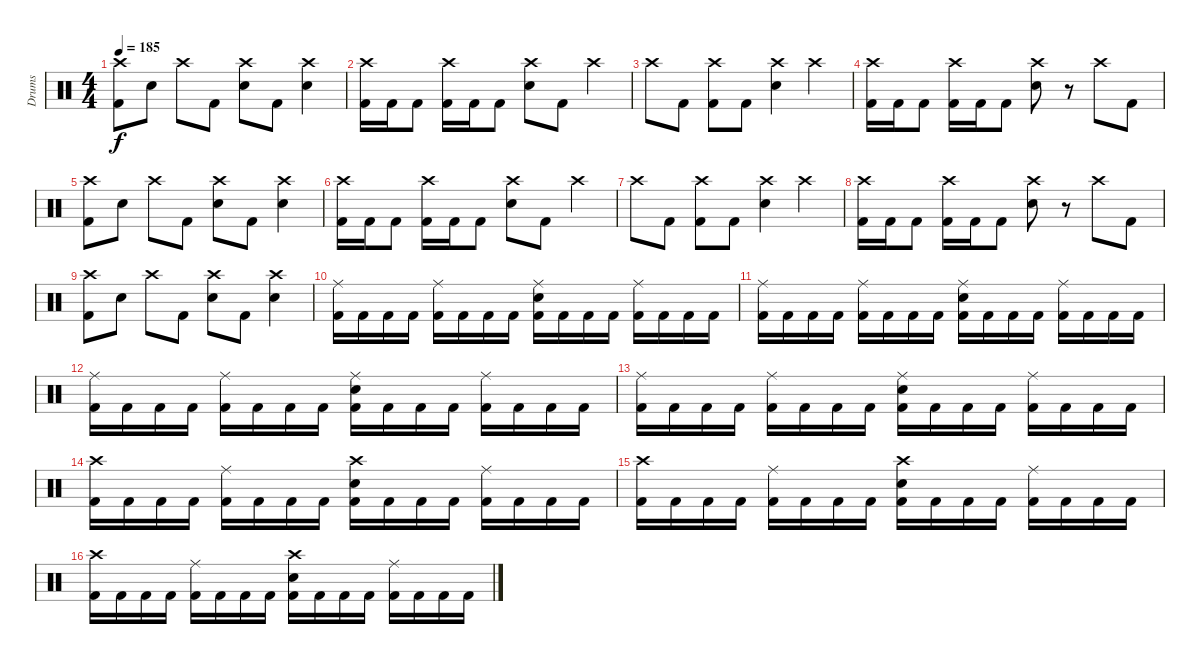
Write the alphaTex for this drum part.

\track ("Drums" "Drums") {instrument percussion}
\staff {score}
\articulation defaults
\ts (4 4)
\tempo 185
\clef neutral
\ks c
("Crash high (hit)" "Kick (hit) 2").8{dy f} "Snare (hit) 2".8 "Crash high (hit)".8 "Kick (hit) 2".8 ("Crash high (hit)" "Snare (hit) 2").8 "Kick (hit) 2".8 ("Crash high (hit)" "Snare (hit) 2").4 |
("Crash high (hit)" "Kick (hit) 2").16 "Kick (hit) 2".16 "Kick (hit) 2".8 ("Crash high (hit)" "Kick (hit) 2").16 "Kick (hit) 2".16 "Kick (hit) 2".8 ("Crash high (hit)" "Snare (hit) 2").8 "Kick (hit) 2".8 "Crash high (hit)".4 |
"Crash high (hit)".8 "Kick (hit) 2".8 ("Crash high (hit)" "Kick (hit) 2").8 "Kick (hit) 2".8 ("Crash high (hit)" "Snare (hit) 2").4 "Crash high (hit)".4 |
("Crash high (hit)" "Kick (hit) 2").16 "Kick (hit) 2".16 "Kick (hit) 2".8 ("Crash high (hit)" "Kick (hit) 2").16 "Kick (hit) 2".16 "Kick (hit) 2".8 ("Crash high (hit)" "Snare (hit) 2").8 r.8 "Crash high (hit)".8 "Kick (hit) 2".8 |
("Crash high (hit)" "Kick (hit) 2").8 "Snare (hit) 2".8 "Crash high (hit)".8 "Kick (hit) 2".8 ("Crash high (hit)" "Snare (hit) 2").8 "Kick (hit) 2".8 ("Crash high (hit)" "Snare (hit) 2").4 |
("Crash high (hit)" "Kick (hit) 2").16 "Kick (hit) 2".16 "Kick (hit) 2".8 ("Crash high (hit)" "Kick (hit) 2").16 "Kick (hit) 2".16 "Kick (hit) 2".8 ("Crash high (hit)" "Snare (hit) 2").8 "Kick (hit) 2".8 "Crash high (hit)".4 |
"Crash high (hit)".8 "Kick (hit) 2".8 ("Crash high (hit)" "Kick (hit) 2").8 "Kick (hit) 2".8 ("Crash high (hit)" "Snare (hit) 2").4 "Crash high (hit)".4 |
("Crash high (hit)" "Kick (hit) 2").16 "Kick (hit) 2".16 "Kick (hit) 2".8 ("Crash high (hit)" "Kick (hit) 2").16 "Kick (hit) 2".16 "Kick (hit) 2".8 ("Crash high (hit)" "Snare (hit) 2").8 r.8 "Crash high (hit)".8 "Kick (hit) 2".8 |
("Crash high (hit)" "Kick (hit) 2").8 "Snare (hit) 2".8 "Crash high (hit)".8 "Kick (hit) 2".8 ("Crash high (hit)" "Snare (hit) 2").8 "Kick (hit) 2".8 ("Crash high (hit)" "Snare (hit) 2").4 |
("Ride (middle)" "Kick (hit) 2").16 "Kick (hit) 2".16 "Kick (hit) 2".16 "Kick (hit) 2".16 ("Ride (middle)" "Kick (hit) 2").16 "Kick (hit) 2".16 "Kick (hit) 2".16 "Kick (hit) 2".16 ("Ride (middle)" "Snare (hit) 2" "Kick (hit) 2").16 "Kick (hit) 2".16 "Kick (hit) 2".16 "Kick (hit) 2".16 ("Ride (middle)" "Kick (hit) 2").16 "Kick (hit) 2".16 "Kick (hit) 2".16 "Kick (hit) 2".16 |
("Ride (middle)" "Kick (hit) 2").16 "Kick (hit) 2".16 "Kick (hit) 2".16 "Kick (hit) 2".16 ("Ride (middle)" "Kick (hit) 2").16 "Kick (hit) 2".16 "Kick (hit) 2".16 "Kick (hit) 2".16 ("Ride (middle)" "Snare (hit) 2" "Kick (hit) 2").16 "Kick (hit) 2".16 "Kick (hit) 2".16 "Kick (hit) 2".16 ("Ride (middle)" "Kick (hit) 2").16 "Kick (hit) 2".16 "Kick (hit) 2".16 "Kick (hit) 2".16 |
("Ride (middle)" "Kick (hit) 2").16 "Kick (hit) 2".16 "Kick (hit) 2".16 "Kick (hit) 2".16 ("Ride (middle)" "Kick (hit) 2").16 "Kick (hit) 2".16 "Kick (hit) 2".16 "Kick (hit) 2".16 ("Ride (middle)" "Snare (hit) 2" "Kick (hit) 2").16 "Kick (hit) 2".16 "Kick (hit) 2".16 "Kick (hit) 2".16 ("Ride (middle)" "Kick (hit) 2").16 "Kick (hit) 2".16 "Kick (hit) 2".16 "Kick (hit) 2".16 |
("Ride (middle)" "Kick (hit) 2").16 "Kick (hit) 2".16 "Kick (hit) 2".16 "Kick (hit) 2".16 ("Ride (middle)" "Kick (hit) 2").16 "Kick (hit) 2".16 "Kick (hit) 2".16 "Kick (hit) 2".16 ("Ride (middle)" "Snare (hit) 2" "Kick (hit) 2").16 "Kick (hit) 2".16 "Kick (hit) 2".16 "Kick (hit) 2".16 ("Ride (middle)" "Kick (hit) 2").16 "Kick (hit) 2".16 "Kick (hit) 2".16 "Kick (hit) 2".16 |
("Crash high (hit)" "Kick (hit) 2").16 "Kick (hit) 2".16 "Kick (hit) 2".16 "Kick (hit) 2".16 ("Ride (middle)" "Kick (hit) 2").16 "Kick (hit) 2".16 "Kick (hit) 2".16 "Kick (hit) 2".16 ("Crash high (hit)" "Snare (hit) 2" "Kick (hit) 2").16 "Kick (hit) 2".16 "Kick (hit) 2".16 "Kick (hit) 2".16 ("Ride (middle)" "Kick (hit) 2").16 "Kick (hit) 2".16 "Kick (hit) 2".16 "Kick (hit) 2".16 |
("Crash high (hit)" "Kick (hit) 2").16 "Kick (hit) 2".16 "Kick (hit) 2".16 "Kick (hit) 2".16 ("Ride (middle)" "Kick (hit) 2").16 "Kick (hit) 2".16 "Kick (hit) 2".16 "Kick (hit) 2".16 ("Crash high (hit)" "Snare (hit) 2" "Kick (hit) 2").16 "Kick (hit) 2".16 "Kick (hit) 2".16 "Kick (hit) 2".16 ("Ride (middle)" "Kick (hit) 2").16 "Kick (hit) 2".16 "Kick (hit) 2".16 "Kick (hit) 2".16 |
("Crash high (hit)" "Kick (hit) 2").16 "Kick (hit) 2".16 "Kick (hit) 2".16 "Kick (hit) 2".16 ("Ride (middle)" "Kick (hit) 2").16 "Kick (hit) 2".16 "Kick (hit) 2".16 "Kick (hit) 2".16 ("Crash high (hit)" "Snare (hit) 2" "Kick (hit) 2").16 "Kick (hit) 2".16 "Kick (hit) 2".16 "Kick (hit) 2".16 ("Ride (middle)" "Kick (hit) 2").16 "Kick (hit) 2".16 "Kick (hit) 2".16 "Kick (hit) 2".16
